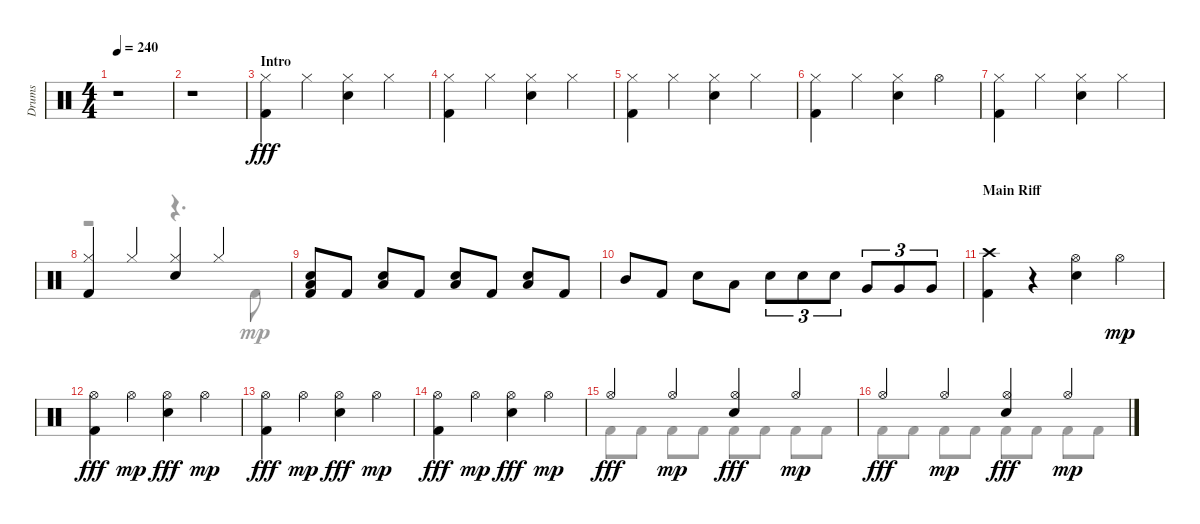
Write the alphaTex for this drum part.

\track ("Drums" "Drums") {instrument percussion}
\staff {score}
\articulation defaults
\voice
\ts (4 4)
\tempo 240
\clef neutral
\ks aminor
r.1{dy fff} |
r.1 |
\section ("" "Intro")
("Kick (hit) 2" "Hi-Hat (closed)").4 "Hi-Hat (closed)".4 ("Snare (hit) 2" "Hi-Hat (closed)").4 "Hi-Hat (closed)".4 |
("Kick (hit) 2" "Hi-Hat (closed)").4 "Hi-Hat (closed)".4 ("Snare (hit) 2" "Hi-Hat (closed)").4 "Hi-Hat (closed)".4 |
("Kick (hit) 2" "Hi-Hat (closed)").4 "Hi-Hat (closed)".4 ("Snare (hit) 2" "Hi-Hat (closed)").4 "Hi-Hat (closed)".4 |
("Kick (hit) 2" "Hi-Hat (closed)").4 "Hi-Hat (closed)".4 ("Snare (hit) 2" "Hi-Hat (closed)").4 "Hi-Hat (open)".4 |
("Kick (hit) 2" "Hi-Hat (closed)").4 "Hi-Hat (closed)".4 ("Snare (hit) 2" "Hi-Hat (closed)").4 "Hi-Hat (closed)".4 |
("Kick (hit) 2" "Hi-Hat (closed)").4 "Hi-Hat (closed)".4 ("Snare (hit) 2" "Hi-Hat (closed)").4 "Hi-Hat (closed)".4 |
("Kick (hit) 2" "Snare (hit) 2" "Low Floor Tom (hit)").8 "Kick (hit) 2".8 ("Snare (hit) 2" "Low Floor Tom (hit)").8 "Kick (hit) 2".8 ("Snare (hit) 2" "Low Floor Tom (hit)").8 "Kick (hit) 2".8 ("Snare (hit) 2" "Low Floor Tom (hit)").8 "Kick (hit) 2".8 |
"Mid Tom (hit)".8 "Kick (hit) 2".8 "Snare (hit) 2".8 "Low Tom (hit)".8 "Snare (hit) 2".8{tu (3 2)} "Snare (hit) 2".8{tu (3 2)} "Snare (hit) 2".8{tu (3 2)} "Very Low Tom (hit)".8{tu (3 2)} "Very Low Tom (hit)".8{tu (3 2)} "Very Low Tom (hit)".8{tu (3 2)} |
\section ("" "Main Riff")
("Kick (hit) 2" "Crash high (hit)").4 r.4 ("Hi-Hat (open)" "Snare (hit) 2").4 "Hi-Hat (open)".4{dy mp} |
("Kick (hit) 2" "Hi-Hat (open)").4{dy fff} "Hi-Hat (open)".4{dy mp} ("Hi-Hat (open)" "Snare (hit) 2").4{dy fff} "Hi-Hat (open)".4{dy mp} |
("Kick (hit) 2" "Hi-Hat (open)").4{dy fff} "Hi-Hat (open)".4{dy mp} ("Snare (hit) 2" "Hi-Hat (open)").4{dy fff} "Hi-Hat (open)".4{dy mp} |
("Kick (hit) 2" "Hi-Hat (open)").4{dy fff} "Hi-Hat (open)".4{dy mp} ("Hi-Hat (open)" "Snare (hit) 2").4{dy fff} "Hi-Hat (open)".4{dy mp} |
"Hi-Hat (open)".4{dy fff} "Hi-Hat (open)".4{dy mp} ("Snare (hit) 2" "Hi-Hat (open)").4{dy fff} "Hi-Hat (open)".4{dy mp} |
"Hi-Hat (open)".4{dy fff} "Hi-Hat (open)".4{dy mp} ("Snare (hit) 2" "Hi-Hat (open)").4{dy fff} "Hi-Hat (open)".4{dy mp}
\voice
\clef neutral
\ottava regular
\simile none
\ks aminor
|
|
|
|
|
|
|
r.2 r.4{d} "Kick (hit) 2".8 |
|
|
|
|
|
|
"Kick (hit) 2".8 "Kick (hit) 2".8 "Kick (hit) 2".8 "Kick (hit) 2".8 "Kick (hit) 2".8 "Kick (hit) 2".8 "Kick (hit) 2".8 "Kick (hit) 2".8 |
"Kick (hit) 2".8 "Kick (hit) 2".8 "Kick (hit) 2".8 "Kick (hit) 2".8 "Kick (hit) 2".8 "Kick (hit) 2".8 "Kick (hit) 2".8 "Kick (hit) 2".8
